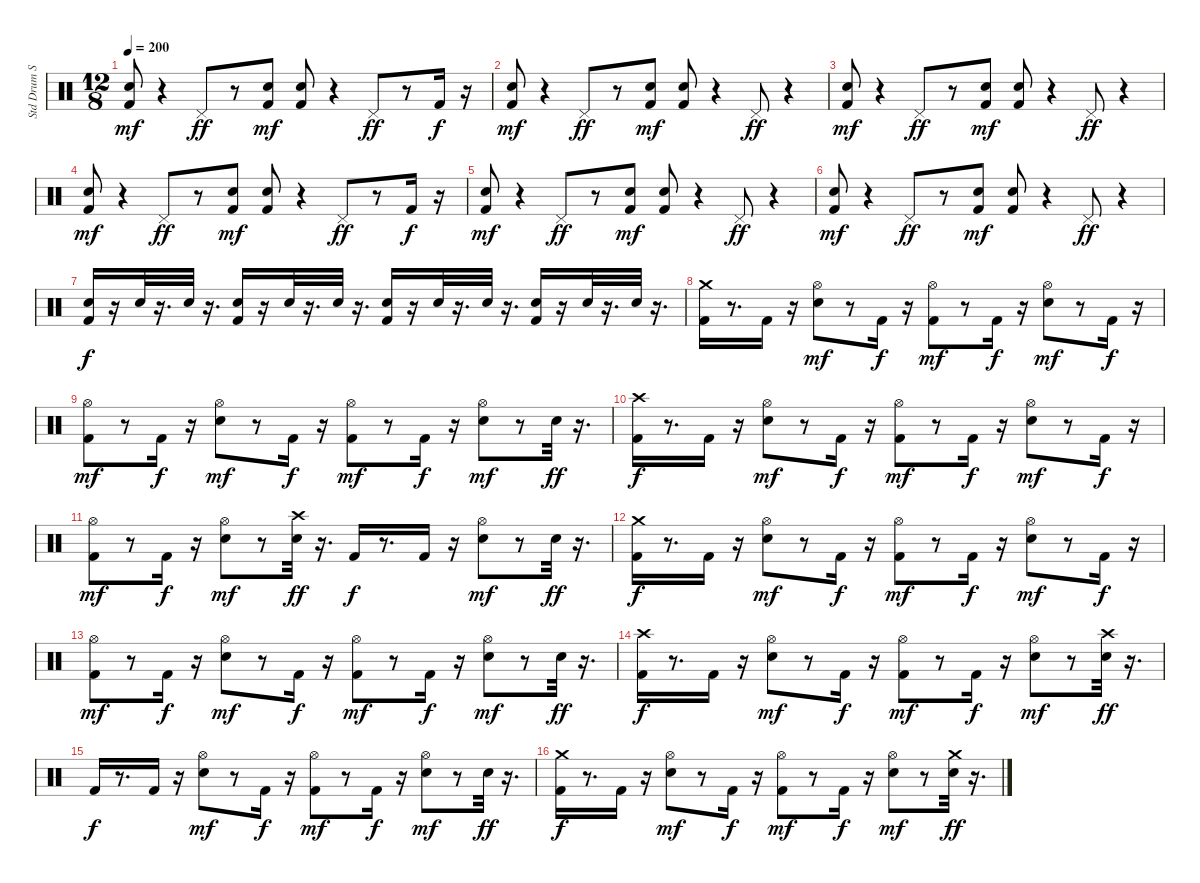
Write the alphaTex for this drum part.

\track ("Std Drum Set" "Std Drum S") {instrument percussion}
\staff {score}
\articulation defaults
\ts (12 8)
\tempo 200
\clef neutral
\ks c
("Kick (hit) 2" "Hand Clap (hit)").8{dy mf} r.4 "Pedal Hi-Hat (hit)".8{dy ff} r.8 ("Kick (hit) 2" "Hand Clap (hit)").8{dy mf} ("Kick (hit) 2" "Hand Clap (hit)").8 r.4 "Pedal Hi-Hat (hit)".8{dy ff} r.8 "Kick (hit) 2".16{dy f} r.16 |
("Kick (hit) 2" "Hand Clap (hit)").8{dy mf} r.4 "Pedal Hi-Hat (hit)".8{dy ff} r.8 ("Kick (hit) 2" "Hand Clap (hit)").8{dy mf} ("Kick (hit) 2" "Hand Clap (hit)").8 r.4 "Pedal Hi-Hat (hit)".8{dy ff} r.4 |
("Kick (hit) 2" "Hand Clap (hit)").8{dy mf} r.4 "Pedal Hi-Hat (hit)".8{dy ff} r.8 ("Kick (hit) 2" "Hand Clap (hit)").8{dy mf} ("Kick (hit) 2" "Hand Clap (hit)").8 r.4 "Pedal Hi-Hat (hit)".8{dy ff} r.4 |
("Kick (hit) 2" "Hand Clap (hit)").8{dy mf} r.4 "Pedal Hi-Hat (hit)".8{dy ff} r.8 ("Kick (hit) 2" "Hand Clap (hit)").8{dy mf} ("Kick (hit) 2" "Hand Clap (hit)").8 r.4 "Pedal Hi-Hat (hit)".8{dy ff} r.8 "Kick (hit) 2".16{dy f} r.16 |
("Kick (hit) 2" "Hand Clap (hit)").8{dy mf} r.4 "Pedal Hi-Hat (hit)".8{dy ff} r.8 ("Kick (hit) 2" "Hand Clap (hit)").8{dy mf} ("Kick (hit) 2" "Hand Clap (hit)").8 r.4 "Pedal Hi-Hat (hit)".8{dy ff} r.4 |
("Kick (hit) 2" "Hand Clap (hit)").8{dy mf} r.4 "Pedal Hi-Hat (hit)".8{dy ff} r.8 ("Kick (hit) 2" "Hand Clap (hit)").8{dy mf} ("Kick (hit) 2" "Hand Clap (hit)").8 r.4 "Pedal Hi-Hat (hit)".8{dy ff} r.4 |
("Kick (hit) 2" "Snare (hit) 2").16{dy f} r.16 "Snare (hit) 2".32 r.16{d} "Snare (hit) 2".32 r.16{d} ("Kick (hit) 2" "Snare (hit) 2").16 r.16 "Snare (hit) 2".32 r.16{d} "Snare (hit) 2".32 r.16{d} ("Kick (hit) 2" "Snare (hit) 2").16 r.16 "Snare (hit) 2".32 r.16{d} "Snare (hit) 2".32 r.16{d} ("Kick (hit) 2" "Snare (hit) 2").16 r.16 "Snare (hit) 2".32 r.16{d} "Snare (hit) 2".32 r.16{d} |
("Kick (hit) 2" "Crash medium (hit)").16 r.8{d} "Kick (hit) 2".16 r.16 ("Snare (hit) 2" "Hi-Hat (open)").8{dy mf} r.8 "Kick (hit) 2".16{dy f} r.16 ("Kick (hit) 2" "Hi-Hat (open)").8{dy mf} r.8 "Kick (hit) 2".16{dy f} r.16 ("Snare (hit) 2" "Hi-Hat (open)").8{dy mf} r.8 "Kick (hit) 2".16{dy f} r.16 |
("Kick (hit) 2" "Hi-Hat (open)").8{dy mf} r.8 "Kick (hit) 2".16{dy f} r.16 ("Snare (hit) 2" "Hi-Hat (open)").8{dy mf} r.8 "Kick (hit) 2".16{dy f} r.16 ("Kick (hit) 2" "Hi-Hat (open)").8{dy mf} r.8 "Kick (hit) 2".16{dy f} r.16 ("Snare (hit) 2" "Hi-Hat (open)").8{dy mf} r.8 "Snare (hit) 2".32{dy ff} r.16{d} |
("Kick (hit) 2" "Crash high (hit)").16{dy f} r.8{d} "Kick (hit) 2".16 r.16 ("Snare (hit) 2" "Hi-Hat (open)").8{dy mf} r.8 "Kick (hit) 2".16{dy f} r.16 ("Kick (hit) 2" "Hi-Hat (open)").8{dy mf} r.8 "Kick (hit) 2".16{dy f} r.16 ("Snare (hit) 2" "Hi-Hat (open)").8{dy mf} r.8 "Kick (hit) 2".16{dy f} r.16 |
("Kick (hit) 2" "Hi-Hat (open)").8{dy mf} r.8 "Kick (hit) 2".16{dy f} r.16 ("Snare (hit) 2" "Hi-Hat (open)").8{dy mf} r.8 ("Snare (hit) 2" "Crash high (hit)").32{dy ff} r.16{d} "Kick (hit) 2".16{dy f} r.8{d} "Kick (hit) 2".16 r.16 ("Snare (hit) 2" "Hi-Hat (open)").8{dy mf} r.8 "Snare (hit) 2".32{dy ff} r.16{d} |
("Kick (hit) 2" "Crash medium (hit)").16{dy f} r.8{d} "Kick (hit) 2".16 r.16 ("Snare (hit) 2" "Hi-Hat (open)").8{dy mf} r.8 "Kick (hit) 2".16{dy f} r.16 ("Kick (hit) 2" "Hi-Hat (open)").8{dy mf} r.8 "Kick (hit) 2".16{dy f} r.16 ("Snare (hit) 2" "Hi-Hat (open)").8{dy mf} r.8 "Kick (hit) 2".16{dy f} r.16 |
("Kick (hit) 2" "Hi-Hat (open)").8{dy mf} r.8 "Kick (hit) 2".16{dy f} r.16 ("Snare (hit) 2" "Hi-Hat (open)").8{dy mf} r.8 "Kick (hit) 2".16{dy f} r.16 ("Kick (hit) 2" "Hi-Hat (open)").8{dy mf} r.8 "Kick (hit) 2".16{dy f} r.16 ("Snare (hit) 2" "Hi-Hat (open)").8{dy mf} r.8 "Snare (hit) 2".32{dy ff} r.16{d} |
("Kick (hit) 2" "Crash high (hit)").16{dy f} r.8{d} "Kick (hit) 2".16 r.16 ("Snare (hit) 2" "Hi-Hat (open)").8{dy mf} r.8 "Kick (hit) 2".16{dy f} r.16 ("Kick (hit) 2" "Hi-Hat (open)").8{dy mf} r.8 "Kick (hit) 2".16{dy f} r.16 ("Snare (hit) 2" "Hi-Hat (open)").8{dy mf} r.8 ("Snare (hit) 2" "Crash high (hit)").32{dy ff} r.16{d} |
"Kick (hit) 2".16{dy f} r.8{d} "Kick (hit) 2".16 r.16 ("Snare (hit) 2" "Hi-Hat (open)").8{dy mf} r.8 "Kick (hit) 2".16{dy f} r.16 ("Kick (hit) 2" "Hi-Hat (open)").8{dy mf} r.8 "Kick (hit) 2".16{dy f} r.16 ("Snare (hit) 2" "Hi-Hat (open)").8{dy mf} r.8 "Snare (hit) 2".32{dy ff} r.16{d} |
("Kick (hit) 2" "Crash medium (hit)").16{dy f} r.8{d} "Kick (hit) 2".16 r.16 ("Snare (hit) 2" "Hi-Hat (open)").8{dy mf} r.8 "Kick (hit) 2".16{dy f} r.16 ("Kick (hit) 2" "Hi-Hat (open)").8{dy mf} r.8 "Kick (hit) 2".16{dy f} r.16 ("Snare (hit) 2" "Hi-Hat (open)").8{dy mf} r.8 ("Snare (hit) 2" "Crash medium (hit)").32{dy ff} r.16{d}
